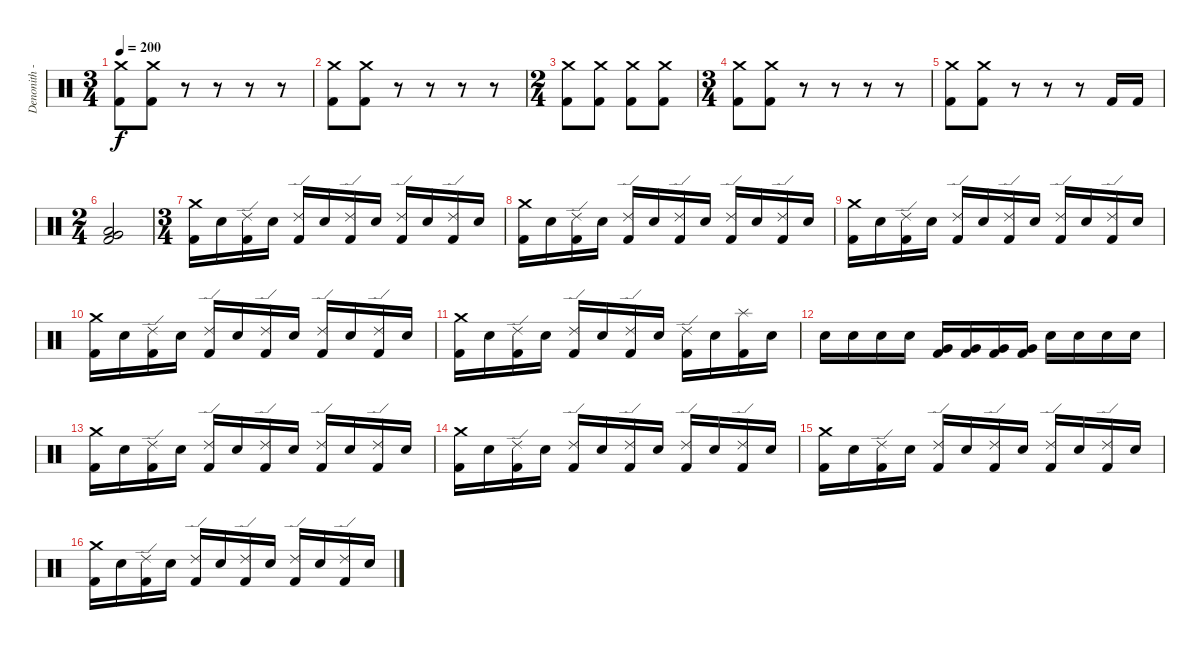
\track ("Denonith - Spyros" "Denonith -") {instrument percussion}
\staff {score}
\articulation defaults
\ts (3 4)
\tempo 200
\clef neutral
\ks c
("Crash medium (hit)" "Kick (hit) 2").8{dy f} ("Crash medium (hit)" "Kick (hit) 2").8 r.8 r.8 r.8 r.8 |
("Crash medium (hit)" "Kick (hit) 2").8 ("Crash medium (hit)" "Kick (hit) 2").8 r.8 r.8 r.8 r.8 |
\ts (2 4)
("Crash medium (hit)" "Kick (hit) 2").8 ("Crash medium (hit)" "Kick (hit) 2").8 ("Crash medium (hit)" "Kick (hit) 2").8 ("Crash medium (hit)" "Kick (hit) 2").8 |
\ts (3 4)
("Crash medium (hit)" "Kick (hit) 2").8 ("Crash medium (hit)" "Kick (hit) 2").8 r.8 r.8 r.8 r.8 |
("Crash medium (hit)" "Kick (hit) 2").8 ("Crash medium (hit)" "Kick (hit) 2").8 r.8 r.8 r.8 "Kick (hit) 2".16 "Kick (hit) 2".16 |
\ts (2 4)
("Low Floor Tom (hit)" "Very Low Tom (hit)" "Kick (hit) 2").2 |
\ts (3 4)
("Crash medium (hit)" "Kick (hit) 2").16 "Electric Snare (hit)".16 ("Ride (edge) 2" "Kick (hit) 2").16 "Electric Snare (hit)".16 ("Ride (edge) 2" "Kick (hit) 2").16 "Electric Snare (hit)".16 ("Ride (edge) 2" "Kick (hit) 2").16 "Electric Snare (hit)".16 ("Ride (edge) 2" "Kick (hit) 2").16 "Electric Snare (hit)".16 ("Ride (edge) 2" "Kick (hit) 2").16 "Electric Snare (hit)".16 |
("Crash medium (hit)" "Kick (hit) 2").16 "Electric Snare (hit)".16 ("Ride (edge) 2" "Kick (hit) 2").16 "Electric Snare (hit)".16 ("Ride (edge) 2" "Kick (hit) 2").16 "Electric Snare (hit)".16 ("Ride (edge) 2" "Kick (hit) 2").16 "Electric Snare (hit)".16 ("Ride (edge) 2" "Kick (hit) 2").16 "Electric Snare (hit)".16 ("Ride (edge) 2" "Kick (hit) 2").16 "Electric Snare (hit)".16 |
("Crash medium (hit)" "Kick (hit) 2").16 "Electric Snare (hit)".16 ("Ride (edge) 2" "Kick (hit) 2").16 "Electric Snare (hit)".16 ("Ride (edge) 2" "Kick (hit) 2").16 "Electric Snare (hit)".16 ("Ride (edge) 2" "Kick (hit) 2").16 "Electric Snare (hit)".16 ("Ride (edge) 2" "Kick (hit) 2").16 "Electric Snare (hit)".16 ("Ride (edge) 2" "Kick (hit) 2").16 "Electric Snare (hit)".16 |
("Crash medium (hit)" "Kick (hit) 2").16 "Electric Snare (hit)".16 ("Ride (edge) 2" "Kick (hit) 2").16 "Electric Snare (hit)".16 ("Ride (edge) 2" "Kick (hit) 2").16 "Electric Snare (hit)".16 ("Ride (edge) 2" "Kick (hit) 2").16 "Electric Snare (hit)".16 ("Ride (edge) 2" "Kick (hit) 2").16 "Electric Snare (hit)".16 ("Ride (edge) 2" "Kick (hit) 2").16 "Electric Snare (hit)".16 |
("Crash medium (hit)" "Kick (hit) 2").16 "Electric Snare (hit)".16 ("Ride (edge) 2" "Kick (hit) 2").16 "Electric Snare (hit)".16 ("Ride (edge) 2" "Kick (hit) 2").16 "Electric Snare (hit)".16 ("Ride (edge) 2" "Kick (hit) 2").16 "Electric Snare (hit)".16 ("Ride (edge) 2" "Kick (hit) 2").16 "Electric Snare (hit)".16 ("Splash (hit)" "Kick (hit) 2").16 "Electric Snare (hit)".16 |
"Electric Snare (hit)".16 "Electric Snare (hit)".16 "Electric Snare (hit)".16 "Electric Snare (hit)".16 ("Very Low Tom (hit)" "Kick (hit) 2").16 ("Very Low Tom (hit)" "Kick (hit) 2").16 ("Very Low Tom (hit)" "Kick (hit) 2").16 ("Very Low Tom (hit)" "Kick (hit) 2").16 "Electric Snare (hit)".16 "Electric Snare (hit)".16 "Electric Snare (hit)".16 "Electric Snare (hit)".16 |
("Crash medium (hit)" "Kick (hit) 2").16 "Electric Snare (hit)".16 ("Ride (edge) 2" "Kick (hit) 2").16 "Electric Snare (hit)".16 ("Ride (edge) 2" "Kick (hit) 2").16 "Electric Snare (hit)".16 ("Ride (edge) 2" "Kick (hit) 2").16 "Electric Snare (hit)".16 ("Ride (edge) 2" "Kick (hit) 2").16 "Electric Snare (hit)".16 ("Ride (edge) 2" "Kick (hit) 2").16 "Electric Snare (hit)".16 |
("Crash medium (hit)" "Kick (hit) 2").16 "Electric Snare (hit)".16 ("Ride (edge) 2" "Kick (hit) 2").16 "Electric Snare (hit)".16 ("Ride (edge) 2" "Kick (hit) 2").16 "Electric Snare (hit)".16 ("Ride (edge) 2" "Kick (hit) 2").16 "Electric Snare (hit)".16 ("Ride (edge) 2" "Kick (hit) 2").16 "Electric Snare (hit)".16 ("Ride (edge) 2" "Kick (hit) 2").16 "Electric Snare (hit)".16 |
("Crash medium (hit)" "Kick (hit) 2").16 "Electric Snare (hit)".16 ("Ride (edge) 2" "Kick (hit) 2").16 "Electric Snare (hit)".16 ("Ride (edge) 2" "Kick (hit) 2").16 "Electric Snare (hit)".16 ("Ride (edge) 2" "Kick (hit) 2").16 "Electric Snare (hit)".16 ("Ride (edge) 2" "Kick (hit) 2").16 "Electric Snare (hit)".16 ("Ride (edge) 2" "Kick (hit) 2").16 "Electric Snare (hit)".16 |
("Crash medium (hit)" "Kick (hit) 2").16 "Electric Snare (hit)".16 ("Ride (edge) 2" "Kick (hit) 2").16 "Electric Snare (hit)".16 ("Ride (edge) 2" "Kick (hit) 2").16 "Electric Snare (hit)".16 ("Ride (edge) 2" "Kick (hit) 2").16 "Electric Snare (hit)".16 ("Ride (edge) 2" "Kick (hit) 2").16 "Electric Snare (hit)".16 ("Ride (edge) 2" "Kick (hit) 2").16 "Electric Snare (hit)".16
